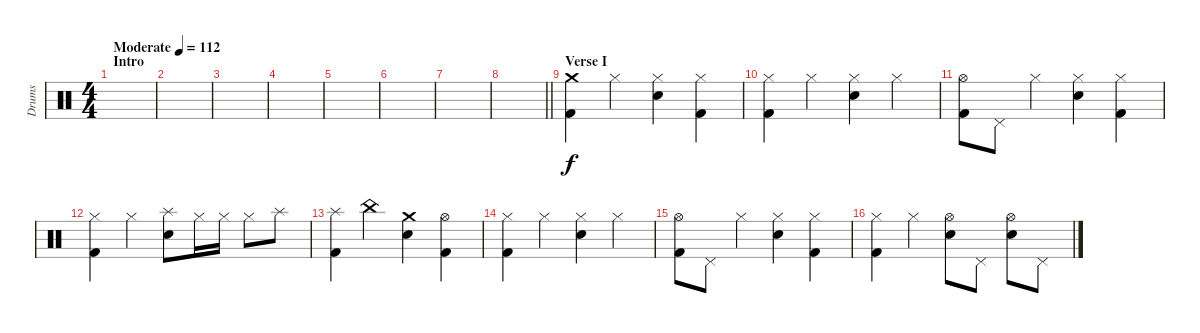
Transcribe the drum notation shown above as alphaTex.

\track ("Drums" "Drums") {instrument percussion}
\staff {score}
\articulation defaults
\ts (4 4)
\section ("" "Intro")
\tempo (112 "Moderate")
\clef neutral
\ks c
|
|
|
|
|
|
|
\barLineRight lightlight
|
\section ("" "Verse I")
("Crash medium (hit)" "Kick (hit) 2").4 "Hi-Hat (closed)".4 ("Snare (hit) 2" "Hi-Hat (closed)").4 ("Kick (hit) 2" "Hi-Hat (closed)").4 |
("Hi-Hat (closed)" "Kick (hit) 2").4 "Hi-Hat (closed)".4 ("Snare (hit) 2" "Hi-Hat (closed)").4 "Hi-Hat (closed)".4 |
("Hi-Hat (open)" "Kick (hit) 2").8 "Pedal Hi-Hat (hit)".8 "Hi-Hat (closed)".4 ("Snare (hit) 2" "Hi-Hat (closed)").4 ("Hi-Hat (closed)" "Kick (hit) 2").4 |
("Hi-Hat (closed)" "Kick (hit) 2").4 "Hi-Hat (closed)".4 ("Snare (hit) 2" "Splash (hit)").8 "Hi-Hat (closed)".16 "Hi-Hat (closed)".16 "Hi-Hat (closed)".8 "Splash (hit)".8 |
("Splash (hit)" "Kick (hit) 2").4 "China (hit)".4 ("Crash medium (hit)" "Snare (hit) 2").4 ("Hi-Hat (open)" "Kick (hit) 2").4 |
("Hi-Hat (closed)" "Kick (hit) 2").4 "Hi-Hat (closed)".4 ("Snare (hit) 2" "Hi-Hat (closed)").4 "Hi-Hat (closed)".4 |
("Hi-Hat (open)" "Kick (hit) 2").8 "Pedal Hi-Hat (hit)".8 "Hi-Hat (closed)".4 ("Snare (hit) 2" "Hi-Hat (closed)").4 ("Hi-Hat (closed)" "Kick (hit) 2").4 |
("Kick (hit) 2" "Hi-Hat (closed)").4 "Hi-Hat (closed)".4 ("Snare (hit) 2" "Hi-Hat (open)").8 "Pedal Hi-Hat (hit)".8 ("Snare (hit) 2" "Hi-Hat (open)").8 "Pedal Hi-Hat (hit)".8
